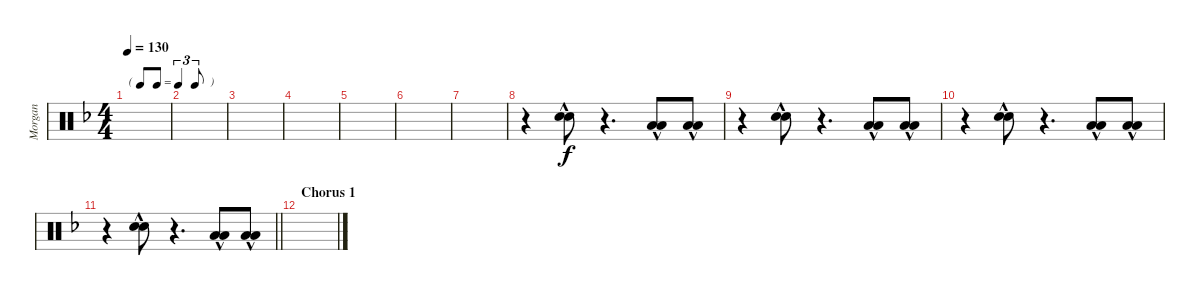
\track ("Morgan" "Morgan") {instrument percussion}
\staff {score}
\articulation defaults
\ts (4 4)
\tf triplet8th
\tempo 130
\clef neutral
\ks dminor
|
|
|
|
|
|
|
r.4 ("Snare (hit) 2"{hac} "Snare (hit) 2"{hac}).8 r.4{d} ("Low Tom (hit)"{hac} "Low Tom (hit)"{hac}).8 ("Low Tom (hit)"{hac} "Low Tom (hit)"{hac}).8 |
r.4 ("Snare (hit) 2"{hac} "Snare (hit) 2"{hac}).8 r.4{d} ("Low Tom (hit)"{hac} "Low Tom (hit)"{hac}).8 ("Low Tom (hit)"{hac} "Low Tom (hit)"{hac}).8 |
r.4 ("Snare (hit) 2"{hac} "Snare (hit) 2"{hac}).8 r.4{d} ("Low Tom (hit)"{hac} "Low Tom (hit)"{hac}).8 ("Low Tom (hit)"{hac} "Low Tom (hit)"{hac}).8 |
\barLineRight lightlight
r.4 ("Snare (hit) 2"{hac} "Snare (hit) 2"{hac}).8 r.4{d} ("Low Tom (hit)"{hac} "Low Tom (hit)"{hac}).8 ("Low Tom (hit)"{hac} "Low Tom (hit)"{hac}).8 |
\section ("" "Chorus 1")
